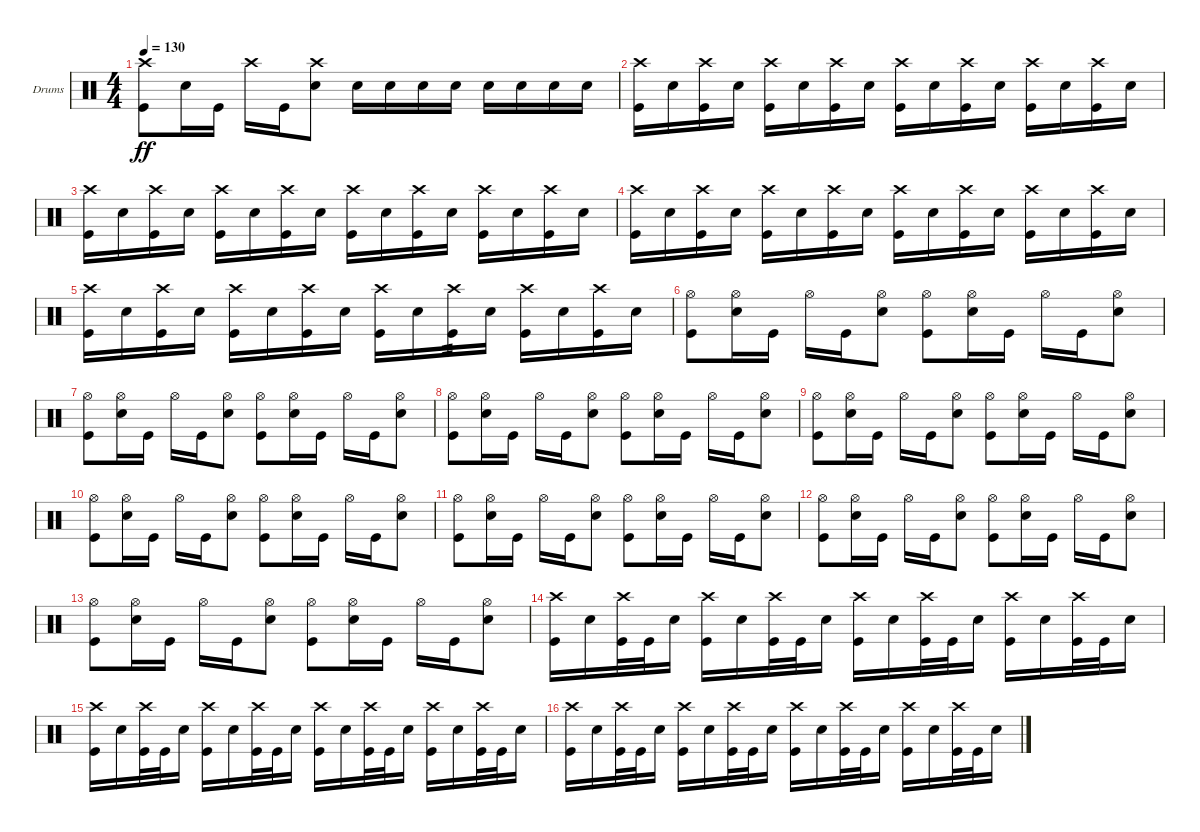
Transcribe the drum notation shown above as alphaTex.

\defaultSystemsLayout 4
\bracketExtendMode groupsimilarinstruments
\firstSystemTrackNameOrientation horizontal
\otherSystemsTrackNameOrientation horizontal
\track ("Drumkit" "Drums") {instrument percussion}
\staff {score}
\articulation defaults
\ts (4 4)
\tempo 130
\clef neutral
\ks c
("Kick (hit)" "Crash high (hit)").8{dy ff} "Snare (hit) 2".16 "Kick (hit)".16 "Crash high (hit)".16 "Kick (hit)".16 ("Snare (hit) 2" "Crash high (hit)").8 "Snare (hit) 2".16 "Snare (hit) 2".16 "Snare (hit) 2".16 "Snare (hit) 2".16 "Snare (hit) 2".16 "Snare (hit) 2".16 "Snare (hit) 2".16 "Snare (hit) 2".16 |
("Kick (hit)" "Crash high (hit)").16 "Snare (hit) 2".16 ("Kick (hit)" "Crash high (hit)").16 "Snare (hit) 2".16 ("Kick (hit)" "Crash high (hit)").16 "Snare (hit) 2".16 ("Kick (hit)" "Crash high (hit)").16 "Snare (hit) 2".16 ("Kick (hit)" "Crash high (hit)").16 "Snare (hit) 2".16 ("Kick (hit)" "Crash high (hit)").16 "Snare (hit) 2".16 ("Kick (hit)" "Crash high (hit)").16 "Snare (hit) 2".16 ("Kick (hit)" "Crash high (hit)").16 "Snare (hit) 2".16 |
("Kick (hit)" "Crash high (hit)").16 "Snare (hit) 2".16 ("Kick (hit)" "Crash high (hit)").16 "Snare (hit) 2".16 ("Kick (hit)" "Crash high (hit)").16 "Snare (hit) 2".16 ("Kick (hit)" "Crash high (hit)").16 "Snare (hit) 2".16 ("Kick (hit)" "Crash high (hit)").16 "Snare (hit) 2".16 ("Kick (hit)" "Crash high (hit)").16 "Snare (hit) 2".16 ("Kick (hit)" "Crash high (hit)").16 "Snare (hit) 2".16 ("Kick (hit)" "Crash high (hit)").16 "Snare (hit) 2".16 |
("Kick (hit)" "Crash high (hit)").16 "Snare (hit) 2".16 ("Kick (hit)" "Crash high (hit)").16 "Snare (hit) 2".16 ("Kick (hit)" "Crash high (hit)").16 "Snare (hit) 2".16 ("Kick (hit)" "Crash high (hit)").16 "Snare (hit) 2".16 ("Kick (hit)" "Crash high (hit)").16 "Snare (hit) 2".16 ("Kick (hit)" "Crash high (hit)").16 "Snare (hit) 2".16 ("Kick (hit)" "Crash high (hit)").16 "Snare (hit) 2".16 ("Kick (hit)" "Crash high (hit)").16 "Snare (hit) 2".16 |
("Kick (hit)" "Crash high (hit)").16 "Snare (hit) 2".16 ("Kick (hit)" "Crash high (hit)").16 "Snare (hit) 2".16 ("Kick (hit)" "Crash high (hit)").16 "Snare (hit) 2".16 ("Kick (hit)" "Crash high (hit)").16 "Snare (hit) 2".16 ("Kick (hit)" "Crash high (hit)").16 "Snare (hit) 2".16 ("Kick (hit)" "Crash high (hit)").16{tp 2} "Snare (hit) 2".16 ("Kick (hit)" "Crash high (hit)").16 "Snare (hit) 2".16 ("Kick (hit)" "Crash high (hit)").16 "Snare (hit) 2".16 |
("Kick (hit)" "Hi-Hat (open)").8 ("Snare (hit) 2" "Hi-Hat (open)").16 "Kick (hit)".16 "Hi-Hat (open)".16 "Kick (hit)".16 ("Snare (hit) 2" "Hi-Hat (open)").8 ("Kick (hit)" "Hi-Hat (open)").8 ("Snare (hit) 2" "Hi-Hat (open)").16 "Kick (hit)".16 "Hi-Hat (open)".16 "Kick (hit)".16 ("Snare (hit) 2" "Hi-Hat (open)").8 |
("Kick (hit)" "Hi-Hat (open)").8 ("Snare (hit) 2" "Hi-Hat (open)").16 "Kick (hit)".16 "Hi-Hat (open)".16 "Kick (hit)".16 ("Snare (hit) 2" "Hi-Hat (open)").8 ("Kick (hit)" "Hi-Hat (open)").8 ("Snare (hit) 2" "Hi-Hat (open)").16 "Kick (hit)".16 "Hi-Hat (open)".16 "Kick (hit)".16 ("Snare (hit) 2" "Hi-Hat (open)").8 |
("Kick (hit)" "Hi-Hat (open)").8 ("Snare (hit) 2" "Hi-Hat (open)").16 "Kick (hit)".16 "Hi-Hat (open)".16 "Kick (hit)".16 ("Snare (hit) 2" "Hi-Hat (open)").8 ("Kick (hit)" "Hi-Hat (open)").8 ("Snare (hit) 2" "Hi-Hat (open)").16 "Kick (hit)".16 "Hi-Hat (open)".16 "Kick (hit)".16 ("Snare (hit) 2" "Hi-Hat (open)").8 |
("Kick (hit)" "Hi-Hat (open)").8 ("Snare (hit) 2" "Hi-Hat (open)").16 "Kick (hit)".16 "Hi-Hat (open)".16 "Kick (hit)".16 ("Snare (hit) 2" "Hi-Hat (open)").8 ("Kick (hit)" "Hi-Hat (open)").8 ("Snare (hit) 2" "Hi-Hat (open)").16 "Kick (hit)".16 "Hi-Hat (open)".16 "Kick (hit)".16 ("Snare (hit) 2" "Hi-Hat (open)").8 |
("Kick (hit)" "Hi-Hat (open)").8 ("Snare (hit) 2" "Hi-Hat (open)").16 "Kick (hit)".16 "Hi-Hat (open)".16 "Kick (hit)".16 ("Snare (hit) 2" "Hi-Hat (open)").8 ("Kick (hit)" "Hi-Hat (open)").8 ("Snare (hit) 2" "Hi-Hat (open)").16 "Kick (hit)".16 "Hi-Hat (open)".16 "Kick (hit)".16 ("Snare (hit) 2" "Hi-Hat (open)").8 |
("Kick (hit)" "Hi-Hat (open)").8 ("Snare (hit) 2" "Hi-Hat (open)").16 "Kick (hit)".16 "Hi-Hat (open)".16 "Kick (hit)".16 ("Snare (hit) 2" "Hi-Hat (open)").8 ("Kick (hit)" "Hi-Hat (open)").8 ("Snare (hit) 2" "Hi-Hat (open)").16 "Kick (hit)".16 "Hi-Hat (open)".16 "Kick (hit)".16 ("Snare (hit) 2" "Hi-Hat (open)").8 |
("Kick (hit)" "Hi-Hat (open)").8 ("Snare (hit) 2" "Hi-Hat (open)").16 "Kick (hit)".16 "Hi-Hat (open)".16 "Kick (hit)".16 ("Snare (hit) 2" "Hi-Hat (open)").8 ("Kick (hit)" "Hi-Hat (open)").8 ("Snare (hit) 2" "Hi-Hat (open)").16 "Kick (hit)".16 "Hi-Hat (open)".16 "Kick (hit)".16 ("Snare (hit) 2" "Hi-Hat (open)").8 |
("Kick (hit)" "Hi-Hat (open)").8 ("Snare (hit) 2" "Hi-Hat (open)").16 "Kick (hit)".16 "Hi-Hat (open)".16 "Kick (hit)".16 ("Snare (hit) 2" "Hi-Hat (open)").8 ("Kick (hit)" "Hi-Hat (open)").8 ("Snare (hit) 2" "Hi-Hat (open)").16 "Kick (hit)".16 "Hi-Hat (open)".16 "Kick (hit)".16 ("Snare (hit) 2" "Hi-Hat (open)").8 |
("Kick (hit)" "Crash high (hit)").16 "Snare (hit) 2".16 ("Kick (hit)" "Crash high (hit)").32 "Kick (hit)".32 "Snare (hit) 2".16 ("Kick (hit)" "Crash high (hit)").16 "Snare (hit) 2".16 ("Kick (hit)" "Crash high (hit)").32 "Kick (hit)".32 "Snare (hit) 2".16 ("Kick (hit)" "Crash high (hit)").16 "Snare (hit) 2".16 ("Kick (hit)" "Crash high (hit)").32 "Kick (hit)".32 "Snare (hit) 2".16 ("Kick (hit)" "Crash high (hit)").16 "Snare (hit) 2".16 ("Kick (hit)" "Crash high (hit)").32 "Kick (hit)".32 "Snare (hit) 2".16 |
("Kick (hit)" "Crash high (hit)").16 "Snare (hit) 2".16 ("Kick (hit)" "Crash high (hit)").32 "Kick (hit)".32 "Snare (hit) 2".16 ("Kick (hit)" "Crash high (hit)").16 "Snare (hit) 2".16 ("Kick (hit)" "Crash high (hit)").32 "Kick (hit)".32 "Snare (hit) 2".16 ("Kick (hit)" "Crash high (hit)").16 "Snare (hit) 2".16 ("Kick (hit)" "Crash high (hit)").32 "Kick (hit)".32 "Snare (hit) 2".16 ("Kick (hit)" "Crash high (hit)").16 "Snare (hit) 2".16 ("Kick (hit)" "Crash high (hit)").32 "Kick (hit)".32 "Snare (hit) 2".16 |
("Kick (hit)" "Crash high (hit)").16 "Snare (hit) 2".16 ("Kick (hit)" "Crash high (hit)").32 "Kick (hit)".32 "Snare (hit) 2".16 ("Kick (hit)" "Crash high (hit)").16 "Snare (hit) 2".16 ("Kick (hit)" "Crash high (hit)").32 "Kick (hit)".32 "Snare (hit) 2".16 ("Kick (hit)" "Crash high (hit)").16 "Snare (hit) 2".16 ("Kick (hit)" "Crash high (hit)").32 "Kick (hit)".32 "Snare (hit) 2".16 ("Kick (hit)" "Crash high (hit)").16 "Snare (hit) 2".16 ("Kick (hit)" "Crash high (hit)").32 "Kick (hit)".32 "Snare (hit) 2".16
